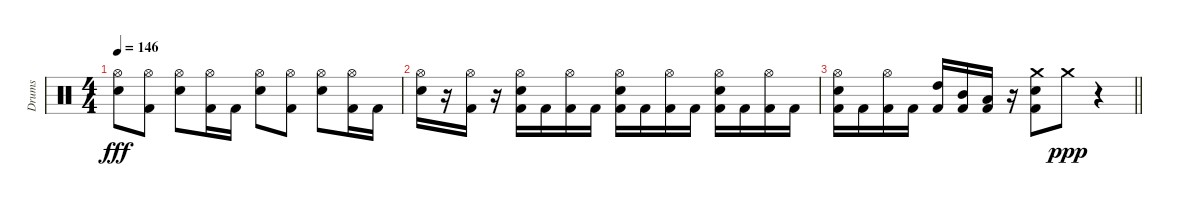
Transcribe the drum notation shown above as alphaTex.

\track ("Drums" "Drums") {instrument percussion}
\staff {score}
\articulation defaults
\ts (4 4)
\tempo 146
\clef neutral
\ks c
("Hi-Hat (open)" "Snare (hit) 2").8{dy fff} ("Hi-Hat (open)" "Kick (hit) 2").8 ("Hi-Hat (open)" "Snare (hit) 2").8 ("Hi-Hat (open)" "Kick (hit) 2").16 "Kick (hit) 2".16 ("Hi-Hat (open)" "Snare (hit) 2").8 ("Hi-Hat (open)" "Kick (hit) 2").8 ("Hi-Hat (open)" "Snare (hit) 2").8 ("Hi-Hat (open)" "Kick (hit) 2").16 "Kick (hit) 2".16 |
("Hi-Hat (open)" "Snare (hit) 2").16 r.16 ("Hi-Hat (open)" "Kick (hit) 2").16 r.16 ("Hi-Hat (open)" "Snare (hit) 2" "Kick (hit) 2").16 "Kick (hit) 2".16 ("Hi-Hat (open)" "Kick (hit) 2").16 "Kick (hit) 2".16 ("Hi-Hat (open)" "Snare (hit) 2" "Kick (hit) 2").16 "Kick (hit) 2".16 ("Hi-Hat (open)" "Kick (hit) 2").16 "Kick (hit) 2".16 ("Hi-Hat (open)" "Snare (hit) 2" "Kick (hit) 2").16 "Kick (hit) 2".16 ("Hi-Hat (open)" "Kick (hit) 2").16 "Kick (hit) 2".16 |
\barLineRight lightlight
("Hi-Hat (open)" "Snare (hit) 2" "Kick (hit) 2").16 "Kick (hit) 2".16 ("Hi-Hat (open)" "Kick (hit) 2").16 "Kick (hit) 2".16 ("High Tom (hit)" "Kick (hit) 2").16 ("Mid Tom (hit)" "Kick (hit) 2").16 ("Low Tom (hit)" "Kick (hit) 2").16 r.16 ("Crash medium (hit)" "Snare (hit) 2" "Kick (hit) 2").8 "Crash medium (hit)".8{dy ppp} r.4
